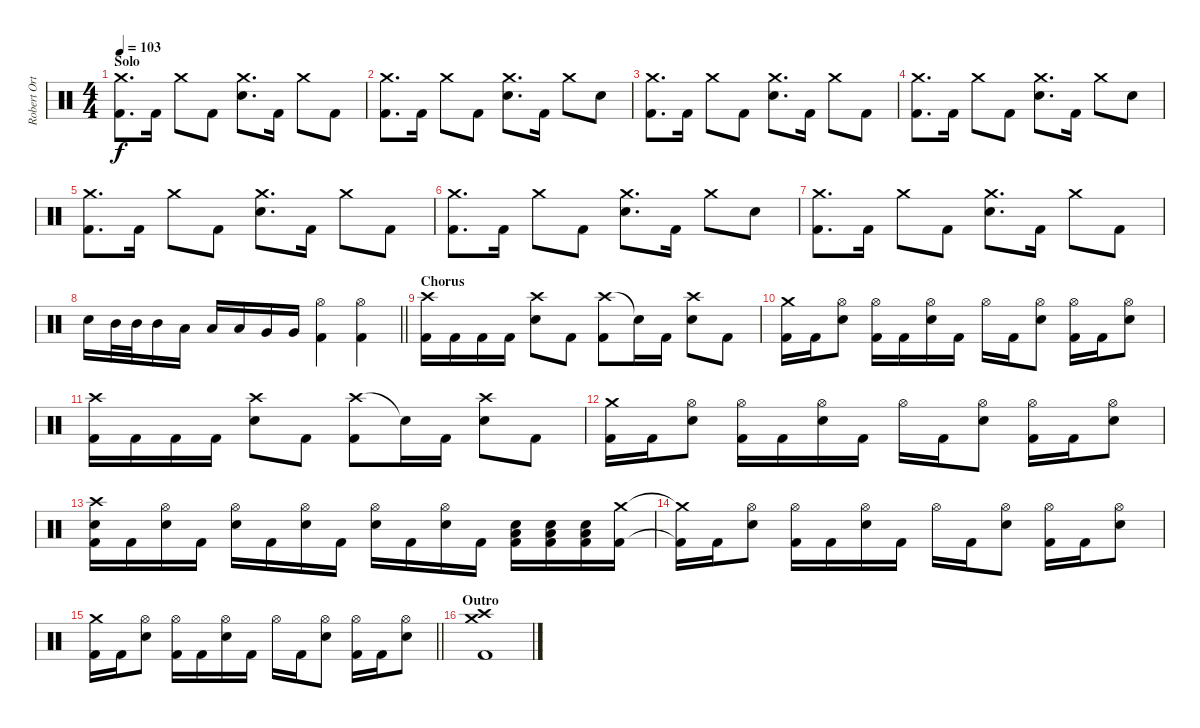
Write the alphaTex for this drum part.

\track ("Robert Ortiz - Drums" "Robert Ort") {instrument percussion}
\staff {score}
\articulation defaults
\ts (4 4)
\section ("" "Solo")
\tempo 103
\clef neutral
\ks c
("Crash medium (hit)" "Kick (hit) 2").8{d dy f} "Kick (hit) 2".16 "Crash medium (hit)".8 "Kick (hit) 2".8 ("Crash medium (hit)" "Electric Snare (hit)").8{d} "Kick (hit) 2".16 "Crash medium (hit)".8 "Kick (hit) 2".8 |
("Crash medium (hit)" "Kick (hit) 2").8{d} "Kick (hit) 2".16 "Crash medium (hit)".8 "Kick (hit) 2".8 ("Crash medium (hit)" "Electric Snare (hit)").8{d} "Kick (hit) 2".16 "Crash medium (hit)".8 "Electric Snare (hit)".8 |
("Crash medium (hit)" "Kick (hit) 2").8{d} "Kick (hit) 2".16 "Crash medium (hit)".8 "Kick (hit) 2".8 ("Crash medium (hit)" "Electric Snare (hit)").8{d} "Kick (hit) 2".16 "Crash medium (hit)".8 "Kick (hit) 2".8 |
("Crash medium (hit)" "Kick (hit) 2").8{d} "Kick (hit) 2".16 "Crash medium (hit)".8 "Kick (hit) 2".8 ("Crash medium (hit)" "Electric Snare (hit)").8{d} "Kick (hit) 2".16 "Crash medium (hit)".8 "Electric Snare (hit)".8 |
("Crash medium (hit)" "Kick (hit) 2").8{d} "Kick (hit) 2".16 "Crash medium (hit)".8 "Kick (hit) 2".8 ("Crash medium (hit)" "Electric Snare (hit)").8{d} "Kick (hit) 2".16 "Crash medium (hit)".8 "Kick (hit) 2".8 |
("Crash medium (hit)" "Kick (hit) 2").8{d} "Kick (hit) 2".16 "Crash medium (hit)".8 "Kick (hit) 2".8 ("Crash medium (hit)" "Electric Snare (hit)").8{d} "Kick (hit) 2".16 "Crash medium (hit)".8 "Electric Snare (hit)".8 |
("Crash medium (hit)" "Kick (hit) 2").8{d} "Kick (hit) 2".16 "Crash medium (hit)".8 "Kick (hit) 2".8 ("Crash medium (hit)" "Electric Snare (hit)").8{d} "Kick (hit) 2".16 "Crash medium (hit)".8 "Kick (hit) 2".8 |
\barLineRight lightlight "Electric Snare (hit)".16 "Mid Tom (hit)".32 "Mid Tom (hit)".32 "Mid Tom (hit)".16 "Low Tom (hit)".16 "Low Tom (hit)".16 "Low Tom (hit)".16 "Very Low Tom (hit)".16 "Very Low Tom (hit)".16
("Hi-Hat (open)" "Kick (hit) 2").4 ("Hi-Hat (open)" "Kick (hit) 2").4 |
\section ("" "Chorus")
("Crash high (hit)" "Kick (hit) 2").16 "Kick (hit) 2".16 "Kick (hit) 2".16 "Kick (hit) 2".16 ("Crash high (hit)" "Electric Snare (hit)").8 "Kick (hit) 2".8 ("Crash high (hit)" "Kick (hit) 2").8 "Snare (hit)"{t}.16 "Kick (hit) 2".16 ("Crash high (hit)" "Electric Snare (hit)").8 "Kick (hit) 2".8 |
("Crash medium (hit)" "Kick (hit) 2").16 "Kick (hit) 2".16 ("Hi-Hat (open)" "Electric Snare (hit)").8 ("Hi-Hat (open)" "Kick (hit) 2").16 "Kick (hit) 2".16 ("Hi-Hat (open)" "Electric Snare (hit)").16 "Kick (hit) 2".16 "Hi-Hat (open)".16 "Kick (hit) 2".16 ("Hi-Hat (open)" "Electric Snare (hit)").8 ("Hi-Hat (open)" "Kick (hit) 2").16 "Kick (hit) 2".16 ("Hi-Hat (open)" "Electric Snare (hit)").8 |
("Crash high (hit)" "Kick (hit) 2").16 "Kick (hit) 2".16 "Kick (hit) 2".16 "Kick (hit) 2".16 ("Crash high (hit)" "Electric Snare (hit)").8 "Kick (hit) 2".8 ("Crash high (hit)" "Kick (hit) 2").8 "Snare (hit)"{t}.16 "Kick (hit) 2".16 ("Crash high (hit)" "Electric Snare (hit)").8 "Kick (hit) 2".8 |
("Crash medium (hit)" "Kick (hit) 2").16 "Kick (hit) 2".16 ("Hi-Hat (open)" "Electric Snare (hit)").8 ("Hi-Hat (open)" "Kick (hit) 2").16 "Kick (hit) 2".16 ("Hi-Hat (open)" "Electric Snare (hit)").16 "Kick (hit) 2".16 "Hi-Hat (open)".16 "Kick (hit) 2".16 ("Hi-Hat (open)" "Electric Snare (hit)").8 ("Hi-Hat (open)" "Kick (hit) 2").16 "Kick (hit) 2".16 ("Hi-Hat (open)" "Electric Snare (hit)").8 |
("Crash high (hit)" "Electric Snare (hit)" "Kick (hit) 2").16 "Kick (hit) 2".16 ("Hi-Hat (open)" "Electric Snare (hit)").16 "Kick (hit) 2".16 ("Hi-Hat (open)" "Electric Snare (hit)").16 "Kick (hit) 2".16 ("Hi-Hat (open)" "Electric Snare (hit)").16 "Kick (hit) 2".16 ("Hi-Hat (open)" "Electric Snare (hit)").16 "Kick (hit) 2".16 ("Hi-Hat (open)" "Electric Snare (hit)").16 "Kick (hit) 2".16 ("Low Floor Tom (hit)" "Electric Snare (hit)" "Kick (hit) 2").16 ("Low Floor Tom (hit)" "Electric Snare (hit)" "Kick (hit) 2").16 ("Low Floor Tom (hit)" "Electric Snare (hit)" "Kick (hit) 2").16 ("Crash medium (hit)" "Kick (hit) 2").16 |
("Crash medium (hit)"{t} "Kick (hit) 2"{t}).16 "Kick (hit) 2".16 ("Hi-Hat (open)" "Electric Snare (hit)").8 ("Hi-Hat (open)" "Kick (hit) 2").16 "Kick (hit) 2".16 ("Hi-Hat (open)" "Electric Snare (hit)").16 "Kick (hit) 2".16 "Hi-Hat (open)".16 "Kick (hit) 2".16 ("Hi-Hat (open)" "Electric Snare (hit)").8 ("Hi-Hat (open)" "Kick (hit) 2").16 "Kick (hit) 2".16 ("Hi-Hat (open)" "Electric Snare (hit)").8 |
\barLineRight lightlight
("Crash medium (hit)" "Kick (hit) 2").16 "Kick (hit) 2".16 ("Hi-Hat (open)" "Electric Snare (hit)").8 ("Hi-Hat (open)" "Kick (hit) 2").16 "Kick (hit) 2".16 ("Hi-Hat (open)" "Electric Snare (hit)").16 "Kick (hit) 2".16 "Hi-Hat (open)".16 "Kick (hit) 2".16 ("Hi-Hat (open)" "Electric Snare (hit)").8 ("Hi-Hat (open)" "Kick (hit) 2").16 "Kick (hit) 2".16 ("Hi-Hat (open)" "Electric Snare (hit)").8 |
\section ("" "Outro")
("Crash medium (hit)" "Crash high (hit)" "Kick (hit) 2").1
